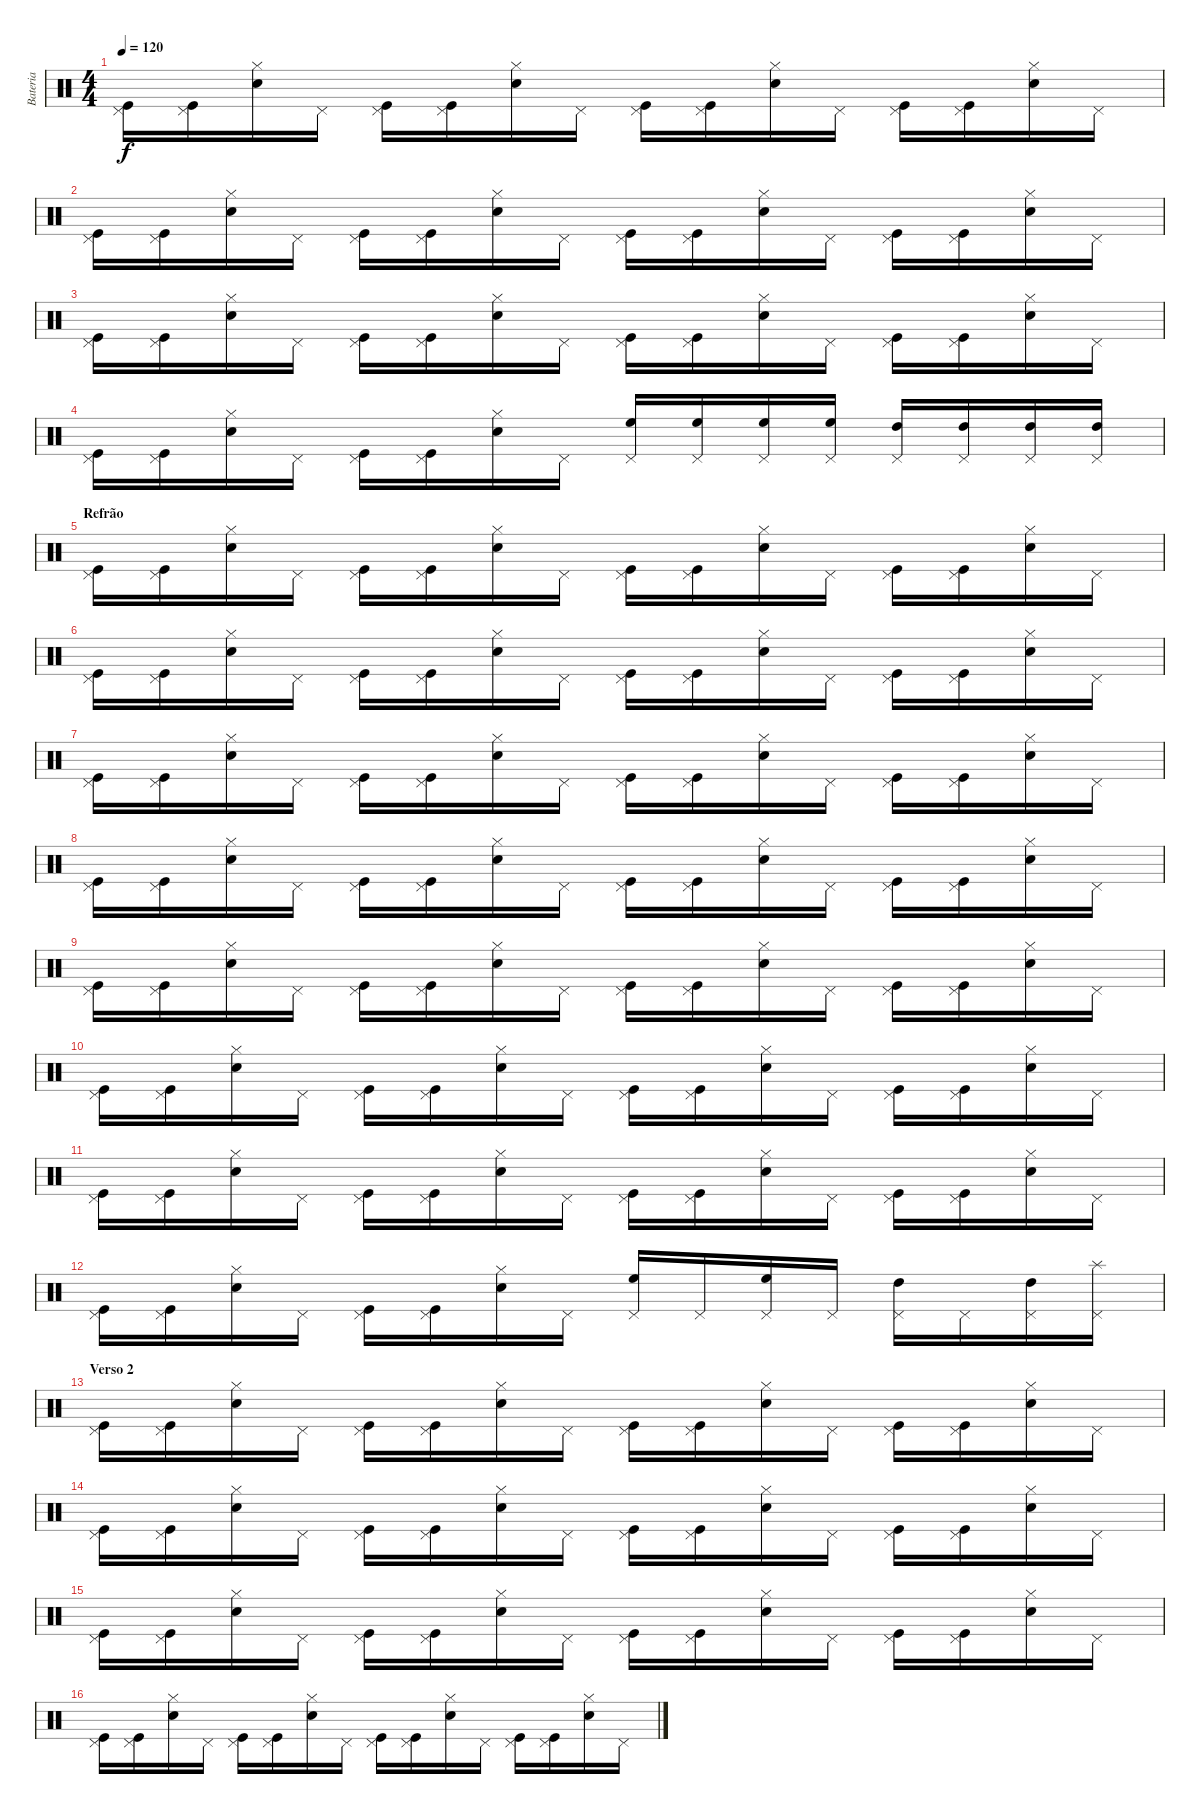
\track ("Bateria" "Bateria") {instrument percussion}
\staff {score}
\articulation defaults
\ts (4 4)
\tempo 120
\clef neutral
\ks c
("Pedal Hi-Hat (hit)" "Kick (hit)").16{dy f} ("Pedal Hi-Hat (hit)" "Kick (hit)").16 ("Hi-Hat (closed)" "Electric Snare (hit)").16 "Pedal Hi-Hat (hit)".16 ("Pedal Hi-Hat (hit)" "Kick (hit)").16 ("Pedal Hi-Hat (hit)" "Kick (hit)").16 ("Hi-Hat (closed)" "Electric Snare (hit)").16 "Pedal Hi-Hat (hit)".16 ("Pedal Hi-Hat (hit)" "Kick (hit)").16 ("Pedal Hi-Hat (hit)" "Kick (hit)").16 ("Hi-Hat (closed)" "Electric Snare (hit)").16 "Pedal Hi-Hat (hit)".16 ("Pedal Hi-Hat (hit)" "Kick (hit)").16 ("Pedal Hi-Hat (hit)" "Kick (hit)").16 ("Hi-Hat (closed)" "Electric Snare (hit)").16 "Pedal Hi-Hat (hit)".16 |
("Pedal Hi-Hat (hit)" "Kick (hit)").16 ("Pedal Hi-Hat (hit)" "Kick (hit)").16 ("Hi-Hat (closed)" "Electric Snare (hit)").16 "Pedal Hi-Hat (hit)".16 ("Pedal Hi-Hat (hit)" "Kick (hit)").16 ("Pedal Hi-Hat (hit)" "Kick (hit)").16 ("Hi-Hat (closed)" "Electric Snare (hit)").16 "Pedal Hi-Hat (hit)".16 ("Pedal Hi-Hat (hit)" "Kick (hit)").16 ("Pedal Hi-Hat (hit)" "Kick (hit)").16 ("Hi-Hat (closed)" "Electric Snare (hit)").16 "Pedal Hi-Hat (hit)".16 ("Pedal Hi-Hat (hit)" "Kick (hit)").16 ("Pedal Hi-Hat (hit)" "Kick (hit)").16 ("Hi-Hat (closed)" "Electric Snare (hit)").16 "Pedal Hi-Hat (hit)".16 |
("Pedal Hi-Hat (hit)" "Kick (hit)").16 ("Pedal Hi-Hat (hit)" "Kick (hit)").16 ("Hi-Hat (closed)" "Electric Snare (hit)").16 "Pedal Hi-Hat (hit)".16 ("Pedal Hi-Hat (hit)" "Kick (hit)").16 ("Pedal Hi-Hat (hit)" "Kick (hit)").16 ("Hi-Hat (closed)" "Electric Snare (hit)").16 "Pedal Hi-Hat (hit)".16 ("Pedal Hi-Hat (hit)" "Kick (hit)").16 ("Pedal Hi-Hat (hit)" "Kick (hit)").16 ("Hi-Hat (closed)" "Electric Snare (hit)").16 "Pedal Hi-Hat (hit)".16 ("Pedal Hi-Hat (hit)" "Kick (hit)").16 ("Pedal Hi-Hat (hit)" "Kick (hit)").16 ("Hi-Hat (closed)" "Electric Snare (hit)").16 "Pedal Hi-Hat (hit)".16 |
("Pedal Hi-Hat (hit)" "Kick (hit)").16 ("Pedal Hi-Hat (hit)" "Kick (hit)").16 ("Hi-Hat (closed)" "Electric Snare (hit)").16 "Pedal Hi-Hat (hit)".16 ("Pedal Hi-Hat (hit)" "Kick (hit)").16 ("Pedal Hi-Hat (hit)" "Kick (hit)").16 ("Hi-Hat (closed)" "Electric Snare (hit)").16 "Pedal Hi-Hat (hit)".16 ("Pedal Hi-Hat (hit)" "High Floor Tom (hit)").16 ("Pedal Hi-Hat (hit)" "High Floor Tom (hit)").16 ("Pedal Hi-Hat (hit)" "High Floor Tom (hit)").16 ("Pedal Hi-Hat (hit)" "High Floor Tom (hit)").16 ("Pedal Hi-Hat (hit)" "High Tom (hit)").16 ("Pedal Hi-Hat (hit)" "High Tom (hit)").16 ("Pedal Hi-Hat (hit)" "High Tom (hit)").16 ("Pedal Hi-Hat (hit)" "High Tom (hit)").16 |
\section ("" "Refrão")
("Pedal Hi-Hat (hit)" "Kick (hit)").16 ("Pedal Hi-Hat (hit)" "Kick (hit)").16 ("Hi-Hat (closed)" "Electric Snare (hit)").16 "Pedal Hi-Hat (hit)".16 ("Pedal Hi-Hat (hit)" "Kick (hit)").16 ("Pedal Hi-Hat (hit)" "Kick (hit)").16 ("Hi-Hat (closed)" "Electric Snare (hit)").16 "Pedal Hi-Hat (hit)".16 ("Pedal Hi-Hat (hit)" "Kick (hit)").16 ("Pedal Hi-Hat (hit)" "Kick (hit)").16 ("Hi-Hat (closed)" "Electric Snare (hit)").16 "Pedal Hi-Hat (hit)".16 ("Pedal Hi-Hat (hit)" "Kick (hit)").16 ("Pedal Hi-Hat (hit)" "Kick (hit)").16 ("Hi-Hat (closed)" "Electric Snare (hit)").16 "Pedal Hi-Hat (hit)".16 |
("Pedal Hi-Hat (hit)" "Kick (hit)").16 ("Pedal Hi-Hat (hit)" "Kick (hit)").16 ("Hi-Hat (closed)" "Electric Snare (hit)").16 "Pedal Hi-Hat (hit)".16 ("Pedal Hi-Hat (hit)" "Kick (hit)").16 ("Pedal Hi-Hat (hit)" "Kick (hit)").16 ("Hi-Hat (closed)" "Electric Snare (hit)").16 "Pedal Hi-Hat (hit)".16 ("Pedal Hi-Hat (hit)" "Kick (hit)").16 ("Pedal Hi-Hat (hit)" "Kick (hit)").16 ("Hi-Hat (closed)" "Electric Snare (hit)").16 "Pedal Hi-Hat (hit)".16 ("Pedal Hi-Hat (hit)" "Kick (hit)").16 ("Pedal Hi-Hat (hit)" "Kick (hit)").16 ("Hi-Hat (closed)" "Electric Snare (hit)").16 "Pedal Hi-Hat (hit)".16 |
("Pedal Hi-Hat (hit)" "Kick (hit)").16 ("Pedal Hi-Hat (hit)" "Kick (hit)").16 ("Hi-Hat (closed)" "Electric Snare (hit)").16 "Pedal Hi-Hat (hit)".16 ("Pedal Hi-Hat (hit)" "Kick (hit)").16 ("Pedal Hi-Hat (hit)" "Kick (hit)").16 ("Hi-Hat (closed)" "Electric Snare (hit)").16 "Pedal Hi-Hat (hit)".16 ("Pedal Hi-Hat (hit)" "Kick (hit)").16 ("Pedal Hi-Hat (hit)" "Kick (hit)").16 ("Hi-Hat (closed)" "Electric Snare (hit)").16 "Pedal Hi-Hat (hit)".16 ("Pedal Hi-Hat (hit)" "Kick (hit)").16 ("Pedal Hi-Hat (hit)" "Kick (hit)").16 ("Hi-Hat (closed)" "Electric Snare (hit)").16 "Pedal Hi-Hat (hit)".16 |
("Pedal Hi-Hat (hit)" "Kick (hit)").16 ("Pedal Hi-Hat (hit)" "Kick (hit)").16 ("Hi-Hat (closed)" "Electric Snare (hit)").16 "Pedal Hi-Hat (hit)".16 ("Pedal Hi-Hat (hit)" "Kick (hit)").16 ("Pedal Hi-Hat (hit)" "Kick (hit)").16 ("Hi-Hat (closed)" "Electric Snare (hit)").16 "Pedal Hi-Hat (hit)".16 ("Pedal Hi-Hat (hit)" "Kick (hit)").16 ("Pedal Hi-Hat (hit)" "Kick (hit)").16 ("Hi-Hat (closed)" "Electric Snare (hit)").16 "Pedal Hi-Hat (hit)".16 ("Pedal Hi-Hat (hit)" "Kick (hit)").16 ("Pedal Hi-Hat (hit)" "Kick (hit)").16 ("Hi-Hat (closed)" "Electric Snare (hit)").16 "Pedal Hi-Hat (hit)".16 |
("Pedal Hi-Hat (hit)" "Kick (hit)").16 ("Pedal Hi-Hat (hit)" "Kick (hit)").16 ("Hi-Hat (closed)" "Electric Snare (hit)").16 "Pedal Hi-Hat (hit)".16 ("Pedal Hi-Hat (hit)" "Kick (hit)").16 ("Pedal Hi-Hat (hit)" "Kick (hit)").16 ("Hi-Hat (closed)" "Electric Snare (hit)").16 "Pedal Hi-Hat (hit)".16 ("Pedal Hi-Hat (hit)" "Kick (hit)").16 ("Pedal Hi-Hat (hit)" "Kick (hit)").16 ("Hi-Hat (closed)" "Electric Snare (hit)").16 "Pedal Hi-Hat (hit)".16 ("Pedal Hi-Hat (hit)" "Kick (hit)").16 ("Pedal Hi-Hat (hit)" "Kick (hit)").16 ("Hi-Hat (closed)" "Electric Snare (hit)").16 "Pedal Hi-Hat (hit)".16 |
("Pedal Hi-Hat (hit)" "Kick (hit)").16 ("Pedal Hi-Hat (hit)" "Kick (hit)").16 ("Hi-Hat (closed)" "Electric Snare (hit)").16 "Pedal Hi-Hat (hit)".16 ("Pedal Hi-Hat (hit)" "Kick (hit)").16 ("Pedal Hi-Hat (hit)" "Kick (hit)").16 ("Hi-Hat (closed)" "Electric Snare (hit)").16 "Pedal Hi-Hat (hit)".16 ("Pedal Hi-Hat (hit)" "Kick (hit)").16 ("Pedal Hi-Hat (hit)" "Kick (hit)").16 ("Hi-Hat (closed)" "Electric Snare (hit)").16 "Pedal Hi-Hat (hit)".16 ("Pedal Hi-Hat (hit)" "Kick (hit)").16 ("Pedal Hi-Hat (hit)" "Kick (hit)").16 ("Hi-Hat (closed)" "Electric Snare (hit)").16 "Pedal Hi-Hat (hit)".16 |
("Pedal Hi-Hat (hit)" "Kick (hit)").16 ("Pedal Hi-Hat (hit)" "Kick (hit)").16 ("Hi-Hat (closed)" "Electric Snare (hit)").16 "Pedal Hi-Hat (hit)".16 ("Pedal Hi-Hat (hit)" "Kick (hit)").16 ("Pedal Hi-Hat (hit)" "Kick (hit)").16 ("Hi-Hat (closed)" "Electric Snare (hit)").16 "Pedal Hi-Hat (hit)".16 ("Pedal Hi-Hat (hit)" "Kick (hit)").16 ("Pedal Hi-Hat (hit)" "Kick (hit)").16 ("Hi-Hat (closed)" "Electric Snare (hit)").16 "Pedal Hi-Hat (hit)".16 ("Pedal Hi-Hat (hit)" "Kick (hit)").16 ("Pedal Hi-Hat (hit)" "Kick (hit)").16 ("Hi-Hat (closed)" "Electric Snare (hit)").16 "Pedal Hi-Hat (hit)".16 |
("Pedal Hi-Hat (hit)" "Kick (hit)").16 ("Pedal Hi-Hat (hit)" "Kick (hit)").16 ("Hi-Hat (closed)" "Electric Snare (hit)").16 "Pedal Hi-Hat (hit)".16 ("Pedal Hi-Hat (hit)" "Kick (hit)").16 ("Pedal Hi-Hat (hit)" "Kick (hit)").16 ("Hi-Hat (closed)" "Electric Snare (hit)").16 "Pedal Hi-Hat (hit)".16 ("Pedal Hi-Hat (hit)" "High Floor Tom (hit)").16 "Pedal Hi-Hat (hit)".16 ("Pedal Hi-Hat (hit)" "High Floor Tom (hit)").16 "Pedal Hi-Hat (hit)".16 ("Pedal Hi-Hat (hit)" "High Tom (hit)").16 "Pedal Hi-Hat (hit)".16 ("Pedal Hi-Hat (hit)" "High Tom (hit)").16 ("Pedal Hi-Hat (hit)" "Splash (hit)").16 |
\section ("" "Verso 2")
("Pedal Hi-Hat (hit)" "Kick (hit)").16 ("Pedal Hi-Hat (hit)" "Kick (hit)").16 ("Hi-Hat (closed)" "Electric Snare (hit)").16 "Pedal Hi-Hat (hit)".16 ("Pedal Hi-Hat (hit)" "Kick (hit)").16 ("Pedal Hi-Hat (hit)" "Kick (hit)").16 ("Hi-Hat (closed)" "Electric Snare (hit)").16 "Pedal Hi-Hat (hit)".16 ("Pedal Hi-Hat (hit)" "Kick (hit)").16 ("Pedal Hi-Hat (hit)" "Kick (hit)").16 ("Hi-Hat (closed)" "Electric Snare (hit)").16 "Pedal Hi-Hat (hit)".16 ("Pedal Hi-Hat (hit)" "Kick (hit)").16 ("Pedal Hi-Hat (hit)" "Kick (hit)").16 ("Hi-Hat (closed)" "Electric Snare (hit)").16 "Pedal Hi-Hat (hit)".16 |
("Pedal Hi-Hat (hit)" "Kick (hit)").16 ("Pedal Hi-Hat (hit)" "Kick (hit)").16 ("Hi-Hat (closed)" "Electric Snare (hit)").16 "Pedal Hi-Hat (hit)".16 ("Pedal Hi-Hat (hit)" "Kick (hit)").16 ("Pedal Hi-Hat (hit)" "Kick (hit)").16 ("Hi-Hat (closed)" "Electric Snare (hit)").16 "Pedal Hi-Hat (hit)".16 ("Pedal Hi-Hat (hit)" "Kick (hit)").16 ("Pedal Hi-Hat (hit)" "Kick (hit)").16 ("Hi-Hat (closed)" "Electric Snare (hit)").16 "Pedal Hi-Hat (hit)".16 ("Pedal Hi-Hat (hit)" "Kick (hit)").16 ("Pedal Hi-Hat (hit)" "Kick (hit)").16 ("Hi-Hat (closed)" "Electric Snare (hit)").16 "Pedal Hi-Hat (hit)".16 |
("Pedal Hi-Hat (hit)" "Kick (hit)").16 ("Pedal Hi-Hat (hit)" "Kick (hit)").16 ("Hi-Hat (closed)" "Electric Snare (hit)").16 "Pedal Hi-Hat (hit)".16 ("Pedal Hi-Hat (hit)" "Kick (hit)").16 ("Pedal Hi-Hat (hit)" "Kick (hit)").16 ("Hi-Hat (closed)" "Electric Snare (hit)").16 "Pedal Hi-Hat (hit)".16 ("Pedal Hi-Hat (hit)" "Kick (hit)").16 ("Pedal Hi-Hat (hit)" "Kick (hit)").16 ("Hi-Hat (closed)" "Electric Snare (hit)").16 "Pedal Hi-Hat (hit)".16 ("Pedal Hi-Hat (hit)" "Kick (hit)").16 ("Pedal Hi-Hat (hit)" "Kick (hit)").16 ("Hi-Hat (closed)" "Electric Snare (hit)").16 "Pedal Hi-Hat (hit)".16 |
("Pedal Hi-Hat (hit)" "Kick (hit)").16 ("Pedal Hi-Hat (hit)" "Kick (hit)").16 ("Hi-Hat (closed)" "Electric Snare (hit)").16 "Pedal Hi-Hat (hit)".16 ("Pedal Hi-Hat (hit)" "Kick (hit)").16 ("Pedal Hi-Hat (hit)" "Kick (hit)").16 ("Hi-Hat (closed)" "Electric Snare (hit)").16 "Pedal Hi-Hat (hit)".16 ("Pedal Hi-Hat (hit)" "Kick (hit)").16 ("Pedal Hi-Hat (hit)" "Kick (hit)").16 ("Hi-Hat (closed)" "Electric Snare (hit)").16 "Pedal Hi-Hat (hit)".16 ("Pedal Hi-Hat (hit)" "Kick (hit)").16 ("Pedal Hi-Hat (hit)" "Kick (hit)").16 ("Hi-Hat (closed)" "Electric Snare (hit)").16 "Pedal Hi-Hat (hit)".16
